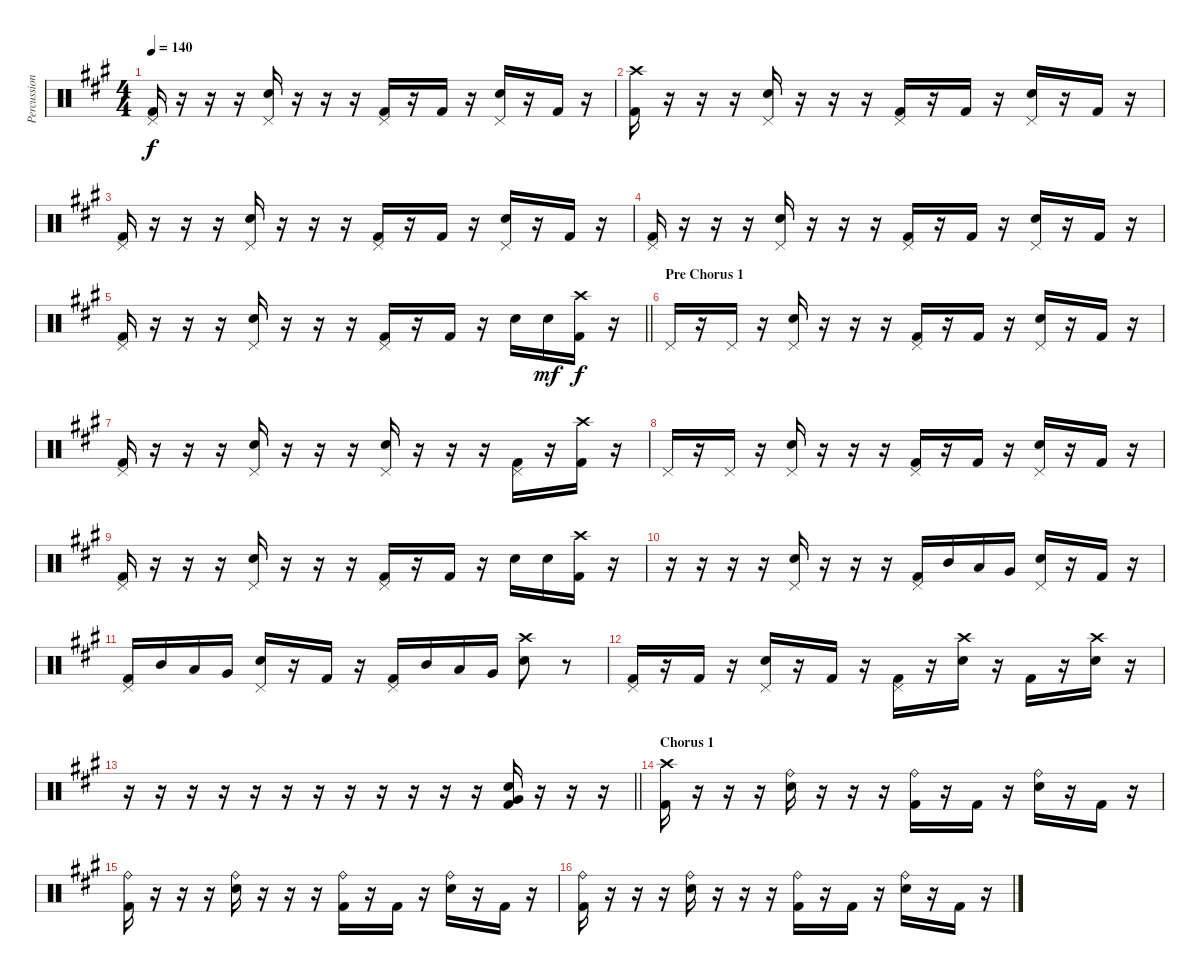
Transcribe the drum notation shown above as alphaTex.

\track ("Percussion" "Percussion") {instrument percussion}
\staff {score}
\articulation defaults
\ts (4 4)
\tempo 140
\clef neutral
\ks a
("Kick (hit) 2" "Pedal Hi-Hat (hit)").16{dy f} r.16{beam merge} r.16 r.16{beam merge} ("Electric Snare (hit)" "Pedal Hi-Hat (hit)").16 r.16 r.16{beam merge} r.16 ("Kick (hit) 2" "Pedal Hi-Hat (hit)").16 r.16 "Kick (hit) 2".16 r.16 ("Electric Snare (hit)" "Pedal Hi-Hat (hit)").16 r.16{beam merge} "Kick (hit) 2".16 r.16 |
("Kick (hit) 2" "Crash high (hit)").16 r.16{beam merge} r.16 r.16{beam merge} ("Electric Snare (hit)" "Pedal Hi-Hat (hit)").16 r.16 r.16{beam merge} r.16 ("Kick (hit) 2" "Pedal Hi-Hat (hit)").16 r.16 "Kick (hit) 2".16 r.16 ("Electric Snare (hit)" "Pedal Hi-Hat (hit)").16 r.16{beam merge} "Kick (hit) 2".16 r.16 |
("Kick (hit) 2" "Pedal Hi-Hat (hit)").16 r.16{beam merge} r.16 r.16{beam merge} ("Electric Snare (hit)" "Pedal Hi-Hat (hit)").16 r.16 r.16{beam merge} r.16 ("Kick (hit) 2" "Pedal Hi-Hat (hit)").16 r.16 "Kick (hit) 2".16 r.16 ("Electric Snare (hit)" "Pedal Hi-Hat (hit)").16 r.16{beam merge} "Kick (hit) 2".16 r.16 |
("Kick (hit) 2" "Pedal Hi-Hat (hit)").16 r.16{beam merge} r.16 r.16{beam merge} ("Electric Snare (hit)" "Pedal Hi-Hat (hit)").16 r.16 r.16{beam merge} r.16 ("Kick (hit) 2" "Pedal Hi-Hat (hit)").16 r.16 "Kick (hit) 2".16 r.16 ("Electric Snare (hit)" "Pedal Hi-Hat (hit)").16 r.16{beam merge} "Kick (hit) 2".16 r.16 |
\barLineRight lightlight
("Kick (hit) 2" "Pedal Hi-Hat (hit)").16 r.16{beam merge} r.16 r.16{beam merge} ("Electric Snare (hit)" "Pedal Hi-Hat (hit)").16 r.16 r.16{beam merge} r.16 ("Kick (hit) 2" "Pedal Hi-Hat (hit)").16 r.16 "Kick (hit) 2".16 r.16 "Electric Snare (hit)".16 "Electric Snare (hit)".16{dy mf beam merge} ("Kick (hit) 2" "Crash high (hit)").16{dy f} r.16 |
\section ("" "Pre Chorus 1")
"Pedal Hi-Hat (hit)".16 r.16{beam merge} "Pedal Hi-Hat (hit)".16 r.16{beam merge} ("Electric Snare (hit)" "Pedal Hi-Hat (hit)").16 r.16 r.16{beam merge} r.16 ("Kick (hit) 2" "Pedal Hi-Hat (hit)").16 r.16 "Kick (hit) 2".16 r.16 ("Electric Snare (hit)" "Pedal Hi-Hat (hit)").16 r.16{beam merge} "Kick (hit) 2".16 r.16 |
("Kick (hit) 2" "Pedal Hi-Hat (hit)").16 r.16{beam merge} r.16 r.16{beam merge} ("Electric Snare (hit)" "Pedal Hi-Hat (hit)").16 r.16 r.16{beam merge} r.16 ("Electric Snare (hit)" "Pedal Hi-Hat (hit)").16 r.16 r.16 r.16 ("Kick (hit) 2" "Pedal Hi-Hat (hit)").16 r.16{beam merge} ("Kick (hit) 2" "Crash high (hit)").16 r.16 |
"Pedal Hi-Hat (hit)".16 r.16{beam merge} "Pedal Hi-Hat (hit)".16 r.16{beam merge} ("Electric Snare (hit)" "Pedal Hi-Hat (hit)").16 r.16 r.16{beam merge} r.16 ("Kick (hit) 2" "Pedal Hi-Hat (hit)").16 r.16 "Kick (hit) 2".16 r.16 ("Electric Snare (hit)" "Pedal Hi-Hat (hit)").16 r.16{beam merge} "Kick (hit) 2".16 r.16 |
("Kick (hit) 2" "Pedal Hi-Hat (hit)").16 r.16{beam merge} r.16 r.16{beam merge} ("Electric Snare (hit)" "Pedal Hi-Hat (hit)").16 r.16 r.16{beam merge} r.16 ("Kick (hit) 2" "Pedal Hi-Hat (hit)").16 r.16 "Kick (hit) 2".16 r.16 "Electric Snare (hit)".16 "Electric Snare (hit)".16{beam merge} ("Kick (hit) 2" "Crash high (hit)").16 r.16 |
r.16 r.16{beam merge} r.16 r.16{beam merge} ("Electric Snare (hit)" "Pedal Hi-Hat (hit)").16 r.16 r.16 r.16 ("Kick (hit) 2" "Pedal Hi-Hat (hit)").16 "Mid Tom (hit)".16 "Low Tom (hit)".16 "Very Low Tom (hit)".16 ("Electric Snare (hit)" "Pedal Hi-Hat (hit)").16{beam merge} r.16 "Kick (hit) 2".16{beam merge} r.16 |
("Kick (hit) 2" "Pedal Hi-Hat (hit)").16 "Mid Tom (hit)".16 "Low Tom (hit)".16 "Very Low Tom (hit)".16 ("Electric Snare (hit)" "Pedal Hi-Hat (hit)").16{beam merge} r.16 "Kick (hit) 2".16 r.16 ("Kick (hit) 2" "Pedal Hi-Hat (hit)").16 "Mid Tom (hit)".16 "Low Tom (hit)".16 "Very Low Tom (hit)".16 ("Electric Snare (hit)" "Crash high (hit)").8 r.8 |
("Kick (hit) 2" "Pedal Hi-Hat (hit)").16{beam merge} r.16 "Kick (hit) 2".16 r.16 ("Electric Snare (hit)" "Pedal Hi-Hat (hit)").16{beam merge} r.16{beam merge} "Kick (hit) 2".16 r.16 ("Kick (hit) 2" "Pedal Hi-Hat (hit)").16{beam merge} r.16{beam merge} ("Electric Snare (hit)" "Crash high (hit)").16 r.16 "Kick (hit) 2".16 r.16{beam merge} ("Electric Snare (hit)" "Crash high (hit)").16 r.16 |
\barLineRight lightlight
r.16 r.16{beam merge} r.16 r.16{beam merge} r.16{beam merge} r.16 r.16 r.16 r.16 r.16 r.16 r.16 ("Kick (hit) 2" "Very Low Tom (hit)" "Electric Snare (hit)").16 r.16 r.16 r.16 |
\section ("" "Chorus 1")
("Kick (hit) 2" "Crash high (hit)").16 r.16{beam merge} r.16 r.16{beam merge} ("Electric Snare (hit)" "Ride (bell)").16 r.16 r.16{beam merge} r.16 ("Kick (hit) 2" "Ride (bell)").16 r.16 "Kick (hit) 2".16 r.16 ("Electric Snare (hit)" "Ride (bell)").16 r.16{beam merge} "Kick (hit) 2".16 r.16 |
("Kick (hit) 2" "Ride (bell)").16 r.16{beam merge} r.16 r.16{beam merge} ("Electric Snare (hit)" "Ride (bell)").16 r.16 r.16{beam merge} r.16 ("Kick (hit) 2" "Ride (bell)").16 r.16 "Kick (hit) 2".16 r.16 ("Electric Snare (hit)" "Ride (bell)").16 r.16{beam merge} "Kick (hit) 2".16 r.16 |
("Kick (hit) 2" "Ride (bell)").16 r.16{beam merge} r.16 r.16{beam merge} ("Electric Snare (hit)" "Ride (bell)").16 r.16 r.16{beam merge} r.16 ("Kick (hit) 2" "Ride (bell)").16 r.16 "Kick (hit) 2".16 r.16 ("Electric Snare (hit)" "Ride (bell)").16 r.16{beam merge} "Kick (hit) 2".16 r.16
